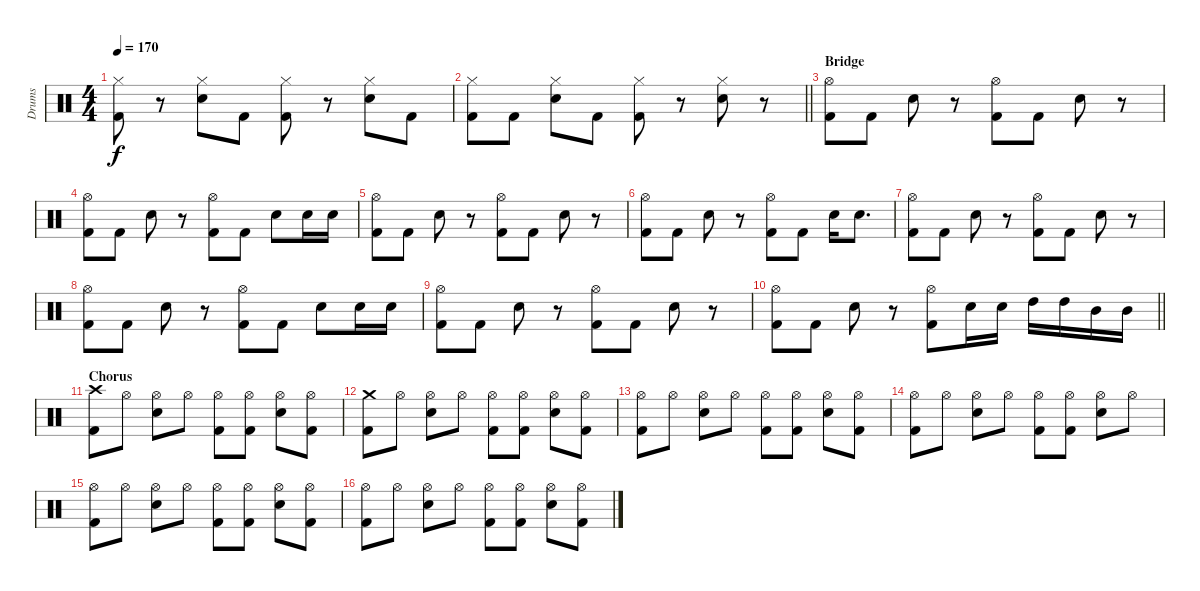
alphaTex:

\track ("Drums" "Drums") {instrument percussion}
\staff {score}
\articulation defaults
\ts (4 4)
\tempo 170
\clef neutral
\ks c
("Hi-Hat (closed)" "Kick (hit) 2").8{dy f} r.8 ("Hi-Hat (closed)" "Electric Snare (hit)").8 "Kick (hit) 2".8 ("Hi-Hat (closed)" "Kick (hit) 2").8 r.8 ("Hi-Hat (closed)" "Electric Snare (hit)").8 "Kick (hit) 2".8 |
\barLineRight lightlight
("Hi-Hat (closed)" "Kick (hit) 2").8 "Kick (hit) 2".8 ("Hi-Hat (closed)" "Electric Snare (hit)").8 "Kick (hit) 2".8 ("Hi-Hat (closed)" "Kick (hit) 2").8 r.8 ("Hi-Hat (closed)" "Electric Snare (hit)").8 r.8 |
\section ("" "Bridge")
("Hi-Hat (open)" "Kick (hit) 2").8 "Kick (hit) 2".8 "Electric Snare (hit)".8 r.8 ("Hi-Hat (open)" "Kick (hit) 2").8 "Kick (hit) 2".8 "Electric Snare (hit)".8 r.8 |
("Hi-Hat (open)" "Kick (hit) 2").8 "Kick (hit) 2".8 "Electric Snare (hit)".8 r.8 ("Hi-Hat (open)" "Kick (hit) 2").8 "Kick (hit) 2".8 "Electric Snare (hit)".8 "Electric Snare (hit)".16 "Electric Snare (hit)".16 |
("Hi-Hat (open)" "Kick (hit) 2").8 "Kick (hit) 2".8 "Electric Snare (hit)".8 r.8 ("Hi-Hat (open)" "Kick (hit) 2").8 "Kick (hit) 2".8 "Electric Snare (hit)".8 r.8 |
("Hi-Hat (open)" "Kick (hit) 2").8 "Kick (hit) 2".8 "Electric Snare (hit)".8 r.8 ("Hi-Hat (open)" "Kick (hit) 2").8 "Kick (hit) 2".8 "Electric Snare (hit)".16 "Electric Snare (hit)".8{d} |
("Hi-Hat (open)" "Kick (hit) 2").8 "Kick (hit) 2".8 "Electric Snare (hit)".8 r.8 ("Hi-Hat (open)" "Kick (hit) 2").8 "Kick (hit) 2".8 "Electric Snare (hit)".8 r.8 |
("Hi-Hat (open)" "Kick (hit) 2").8 "Kick (hit) 2".8 "Electric Snare (hit)".8 r.8 ("Hi-Hat (open)" "Kick (hit) 2").8 "Kick (hit) 2".8 "Electric Snare (hit)".8 "Electric Snare (hit)".16 "Electric Snare (hit)".16 |
("Hi-Hat (open)" "Kick (hit) 2").8 "Kick (hit) 2".8 "Electric Snare (hit)".8 r.8 ("Hi-Hat (open)" "Kick (hit) 2").8 "Kick (hit) 2".8 "Electric Snare (hit)".8 r.8 |
\barLineRight lightlight
("Hi-Hat (open)" "Kick (hit) 2").8 "Kick (hit) 2".8 "Electric Snare (hit)".8 r.8 ("Hi-Hat (open)" "Kick (hit) 2").8 "Electric Snare (hit)".16 "Electric Snare (hit)".16 "High Tom (hit)".16 "High Tom (hit)".16 "Mid Tom (hit)".16 "Mid Tom (hit)".16 |
\section ("" "Chorus")
("Crash high (hit)" "Kick (hit) 2").8 "Hi-Hat (open)".8 ("Hi-Hat (open)" "Electric Snare (hit)").8 "Hi-Hat (open)".8 ("Hi-Hat (open)" "Kick (hit) 2").8 ("Hi-Hat (open)" "Kick (hit) 2").8 ("Hi-Hat (open)" "Electric Snare (hit)").8 ("Hi-Hat (open)" "Kick (hit) 2").8 |
("Crash medium (hit)" "Kick (hit) 2").8 "Hi-Hat (open)".8 ("Hi-Hat (open)" "Electric Snare (hit)").8 "Hi-Hat (open)".8 ("Hi-Hat (open)" "Kick (hit) 2").8 ("Hi-Hat (open)" "Kick (hit) 2").8 ("Hi-Hat (open)" "Electric Snare (hit)").8 ("Hi-Hat (open)" "Kick (hit) 2").8 |
("Hi-Hat (open)" "Kick (hit) 2").8 "Hi-Hat (open)".8 ("Hi-Hat (open)" "Electric Snare (hit)").8 "Hi-Hat (open)".8 ("Hi-Hat (open)" "Kick (hit) 2").8 ("Hi-Hat (open)" "Kick (hit) 2").8 ("Hi-Hat (open)" "Electric Snare (hit)").8 ("Hi-Hat (open)" "Kick (hit) 2").8 |
("Hi-Hat (open)" "Kick (hit) 2").8 "Hi-Hat (open)".8 ("Hi-Hat (open)" "Electric Snare (hit)").8 "Hi-Hat (open)".8 ("Hi-Hat (open)" "Kick (hit) 2").8 ("Hi-Hat (open)" "Kick (hit) 2").8 ("Hi-Hat (open)" "Electric Snare (hit)").8 "Hi-Hat (open)".8 |
("Hi-Hat (open)" "Kick (hit) 2").8 "Hi-Hat (open)".8 ("Hi-Hat (open)" "Electric Snare (hit)").8 "Hi-Hat (open)".8 ("Hi-Hat (open)" "Kick (hit) 2").8 ("Hi-Hat (open)" "Kick (hit) 2").8 ("Hi-Hat (open)" "Electric Snare (hit)").8 ("Hi-Hat (open)" "Kick (hit) 2").8 |
("Hi-Hat (open)" "Kick (hit) 2").8 "Hi-Hat (open)".8 ("Hi-Hat (open)" "Electric Snare (hit)").8 "Hi-Hat (open)".8 ("Hi-Hat (open)" "Kick (hit) 2").8 ("Hi-Hat (open)" "Kick (hit) 2").8 ("Hi-Hat (open)" "Electric Snare (hit)").8 ("Hi-Hat (open)" "Kick (hit) 2").8
